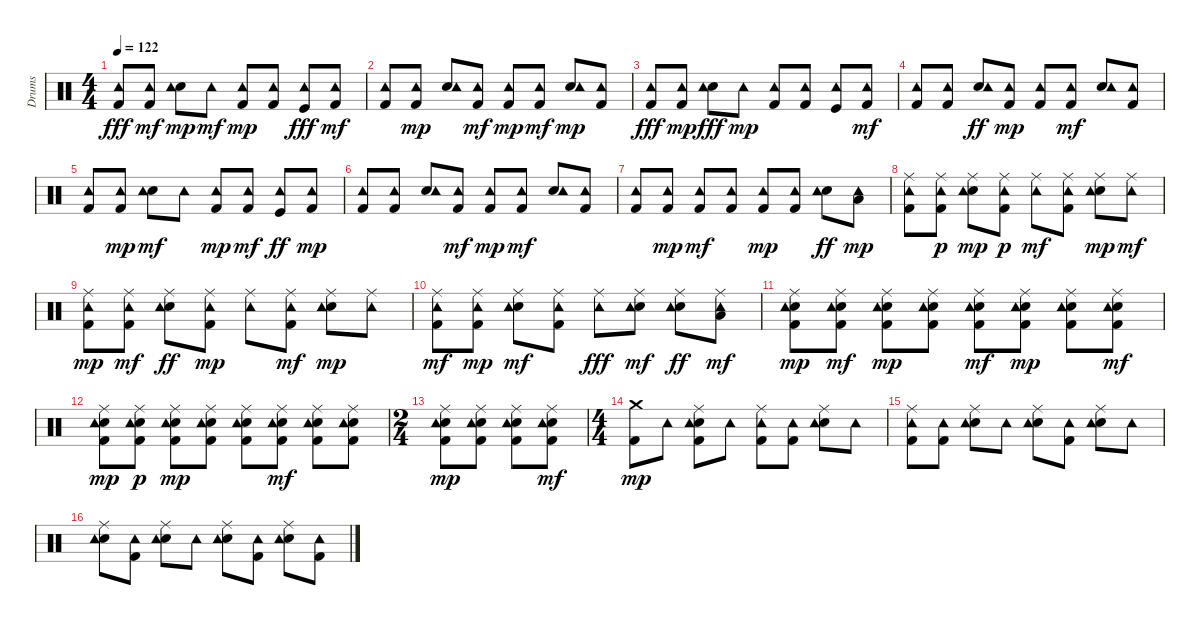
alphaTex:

\track ("Drums" "Drums") {instrument percussion}
\staff {score}
\articulation defaults
\ts (4 4)
\tempo 122
\clef neutral
\ks c
("Kick (hit) 2" "Tambourine (hit)").8{dy fff} ("Kick (hit) 2" "Tambourine (hit)").8{dy mf} ("Snare (hit) 2" "Tambourine (hit)").8{dy mp} "Tambourine (hit)".8{dy mf} ("Kick (hit) 2" "Tambourine (hit)").8{dy mp} ("Kick (hit) 2" "Tambourine (hit)").8 ("Kick (hit)" "Tambourine (hit)").8{dy fff} ("Kick (hit) 2" "Tambourine (hit)").8{dy mf} |
("Kick (hit) 2" "Tambourine (hit)").8 ("Kick (hit) 2" "Tambourine (hit)").8{dy mp} ("Snare (hit) 2" "Tambourine (hit)").8 ("Kick (hit) 2" "Tambourine (hit)").8{dy mf} ("Kick (hit) 2" "Tambourine (hit)").8{dy mp} ("Kick (hit) 2" "Tambourine (hit)").8{dy mf} ("Snare (hit) 2" "Tambourine (hit)").8{dy mp} ("Kick (hit) 2" "Tambourine (hit)").8 |
("Kick (hit) 2" "Tambourine (hit)").8{dy fff} ("Kick (hit) 2" "Tambourine (hit)").8{dy mp} ("Snare (hit) 2" "Tambourine (hit)").8{dy fff} "Tambourine (hit)".8{dy mp} ("Kick (hit) 2" "Tambourine (hit)").8 ("Kick (hit) 2" "Tambourine (hit)").8 ("Kick (hit)" "Tambourine (hit)").8 ("Kick (hit) 2" "Tambourine (hit)").8{dy mf} |
("Kick (hit) 2" "Tambourine (hit)").8 ("Kick (hit) 2" "Tambourine (hit)").8 ("Snare (hit) 2" "Tambourine (hit)").8{dy ff} ("Kick (hit) 2" "Tambourine (hit)").8{dy mp} ("Kick (hit) 2" "Tambourine (hit)").8 ("Kick (hit) 2" "Tambourine (hit)").8{dy mf} ("Snare (hit) 2" "Tambourine (hit)").8 ("Kick (hit) 2" "Tambourine (hit)").8 |
("Kick (hit) 2" "Tambourine (hit)").8 ("Kick (hit) 2" "Tambourine (hit)").8{dy mp} ("Snare (hit) 2" "Tambourine (hit)").8{dy mf} "Tambourine (hit)".8 ("Kick (hit) 2" "Tambourine (hit)").8{dy mp} ("Kick (hit) 2" "Tambourine (hit)").8{dy mf} ("Kick (hit)" "Tambourine (hit)").8{dy ff} ("Kick (hit) 2" "Tambourine (hit)").8{dy mp} |
("Kick (hit) 2" "Tambourine (hit)").8 ("Kick (hit) 2" "Tambourine (hit)").8 ("Snare (hit) 2" "Tambourine (hit)").8 ("Kick (hit) 2" "Tambourine (hit)").8{dy mf} ("Kick (hit) 2" "Tambourine (hit)").8{dy mp} ("Kick (hit) 2" "Tambourine (hit)").8{dy mf} ("Snare (hit) 2" "Tambourine (hit)").8 ("Kick (hit) 2" "Tambourine (hit)").8 |
("Kick (hit) 2" "Tambourine (hit)").8 ("Kick (hit) 2" "Tambourine (hit)").8{dy mp} ("Kick (hit) 2" "Tambourine (hit)").8{dy mf} ("Kick (hit) 2" "Tambourine (hit)").8 ("Kick (hit) 2" "Tambourine (hit)").8{dy mp} ("Kick (hit) 2" "Tambourine (hit)").8 ("Snare (hit) 2" "Tambourine (hit)").8{dy ff} ("Low Tom (hit)" "Tambourine (hit)").8{dy mp} |
("Kick (hit) 2" "Ride (middle)" "Tambourine (hit)").8 ("Kick (hit) 2" "Ride (middle)" "Tambourine (hit)").8{dy p} ("Snare (hit) 2" "Ride (middle)" "Tambourine (hit)").8{dy mp} ("Kick (hit) 2" "Ride (middle)" "Tambourine (hit)").8{dy p} ("Ride (middle)" "Tambourine (hit)").8{dy mf} ("Kick (hit) 2" "Ride (middle)" "Tambourine (hit)").8 ("Snare (hit) 2" "Ride (middle)" "Tambourine (hit)").8{dy mp} ("Ride (middle)" "Tambourine (hit)").8{dy mf} |
("Kick (hit) 2" "Ride (middle)" "Tambourine (hit)").8{dy mp} ("Kick (hit) 2" "Ride (middle)" "Tambourine (hit)").8{dy mf} ("Snare (hit) 2" "Ride (middle)" "Tambourine (hit)").8{dy ff} ("Kick (hit) 2" "Ride (middle)" "Tambourine (hit)").8{dy mp} ("Ride (middle)" "Tambourine (hit)").8 ("Kick (hit) 2" "Ride (middle)" "Tambourine (hit)").8{dy mf} ("Snare (hit) 2" "Ride (middle)" "Tambourine (hit)").8{dy mp} ("Ride (middle)" "Tambourine (hit)").8 |
("Kick (hit) 2" "Ride (middle)" "Tambourine (hit)").8{dy mf} ("Kick (hit) 2" "Ride (middle)" "Tambourine (hit)").8{dy mp} ("Snare (hit) 2" "Ride (middle)" "Tambourine (hit)").8{dy mf} ("Kick (hit) 2" "Ride (middle)" "Tambourine (hit)").8 ("Ride (middle)" "Tambourine (hit)").8{dy fff} ("Snare (hit) 2" "Ride (middle)" "Tambourine (hit)").8{dy mf} ("Snare (hit) 2" "Ride (middle)" "Tambourine (hit)").8{dy ff} ("Low Floor Tom (hit)" "Ride (middle)" "Tambourine (hit)").8{dy mf} |
("Kick (hit) 2" "Snare (hit) 2" "Ride (middle)" "Tambourine (hit)").8{dy mp} ("Kick (hit) 2" "Snare (hit) 2" "Ride (middle)" "Tambourine (hit)").8{dy mf} ("Kick (hit) 2" "Snare (hit) 2" "Ride (middle)" "Tambourine (hit)").8{dy mp} ("Kick (hit) 2" "Snare (hit) 2" "Ride (middle)" "Tambourine (hit)").8 ("Kick (hit) 2" "Snare (hit) 2" "Ride (middle)" "Tambourine (hit)").8{dy mf} ("Kick (hit) 2" "Snare (hit) 2" "Ride (middle)" "Tambourine (hit)").8{dy mp} ("Kick (hit) 2" "Snare (hit) 2" "Ride (middle)" "Tambourine (hit)").8 ("Kick (hit) 2" "Snare (hit) 2" "Ride (middle)" "Tambourine (hit)").8{dy mf} |
("Kick (hit) 2" "Snare (hit) 2" "Ride (middle)" "Tambourine (hit)").8{dy mp} ("Kick (hit) 2" "Snare (hit) 2" "Ride (middle)" "Tambourine (hit)").8{dy p} ("Kick (hit) 2" "Snare (hit) 2" "Ride (middle)" "Tambourine (hit)").8{dy mp} ("Kick (hit) 2" "Snare (hit) 2" "Ride (middle)" "Tambourine (hit)").8 ("Kick (hit) 2" "Snare (hit) 2" "Ride (middle)" "Tambourine (hit)").8 ("Kick (hit) 2" "Snare (hit) 2" "Ride (middle)" "Tambourine (hit)").8{dy mf} ("Kick (hit) 2" "Snare (hit) 2" "Ride (middle)" "Tambourine (hit)").8 ("Kick (hit) 2" "Snare (hit) 2" "Ride (middle)" "Tambourine (hit)").8 |
\ts (2 4)
("Kick (hit) 2" "Snare (hit) 2" "Ride (middle)" "Tambourine (hit)").8{dy mp} ("Kick (hit) 2" "Snare (hit) 2" "Ride (middle)" "Tambourine (hit)").8 ("Kick (hit) 2" "Snare (hit) 2" "Ride (middle)" "Tambourine (hit)").8 ("Kick (hit) 2" "Snare (hit) 2" "Ride (middle)" "Tambourine (hit)").8{dy mf} |
\ts (4 4)
("Kick (hit) 2" "Crash medium (hit)").8{dy mp} "Tambourine (hit)".8 ("Kick (hit) 2" "Snare (hit) 2" "Ride (middle)" "Tambourine (hit)").8 "Tambourine (hit)".8 ("Kick (hit) 2" "Ride (middle)" "Tambourine (hit)").8 ("Kick (hit) 2" "Tambourine (hit)").8 ("Snare (hit) 2" "Ride (middle)" "Tambourine (hit)").8 "Tambourine (hit)".8 |
("Kick (hit) 2" "Ride (middle)" "Tambourine (hit)").8 ("Kick (hit) 2" "Tambourine (hit)").8 ("Snare (hit) 2" "Ride (middle)" "Tambourine (hit)").8 "Tambourine (hit)".8 ("Snare (hit) 2" "Ride (middle)" "Tambourine (hit)").8 ("Kick (hit) 2" "Tambourine (hit)").8 ("Snare (hit) 2" "Ride (middle)" "Tambourine (hit)").8 "Tambourine (hit)".8 |
("Snare (hit) 2" "Ride (middle)" "Tambourine (hit)").8 ("Kick (hit) 2" "Tambourine (hit)").8 ("Snare (hit) 2" "Ride (middle)" "Tambourine (hit)").8 "Tambourine (hit)".8 ("Snare (hit) 2" "Ride (middle)" "Tambourine (hit)").8 ("Kick (hit) 2" "Tambourine (hit)").8 ("Snare (hit) 2" "Ride (middle)" "Tambourine (hit)").8 ("Kick (hit) 2" "Tambourine (hit)").8
